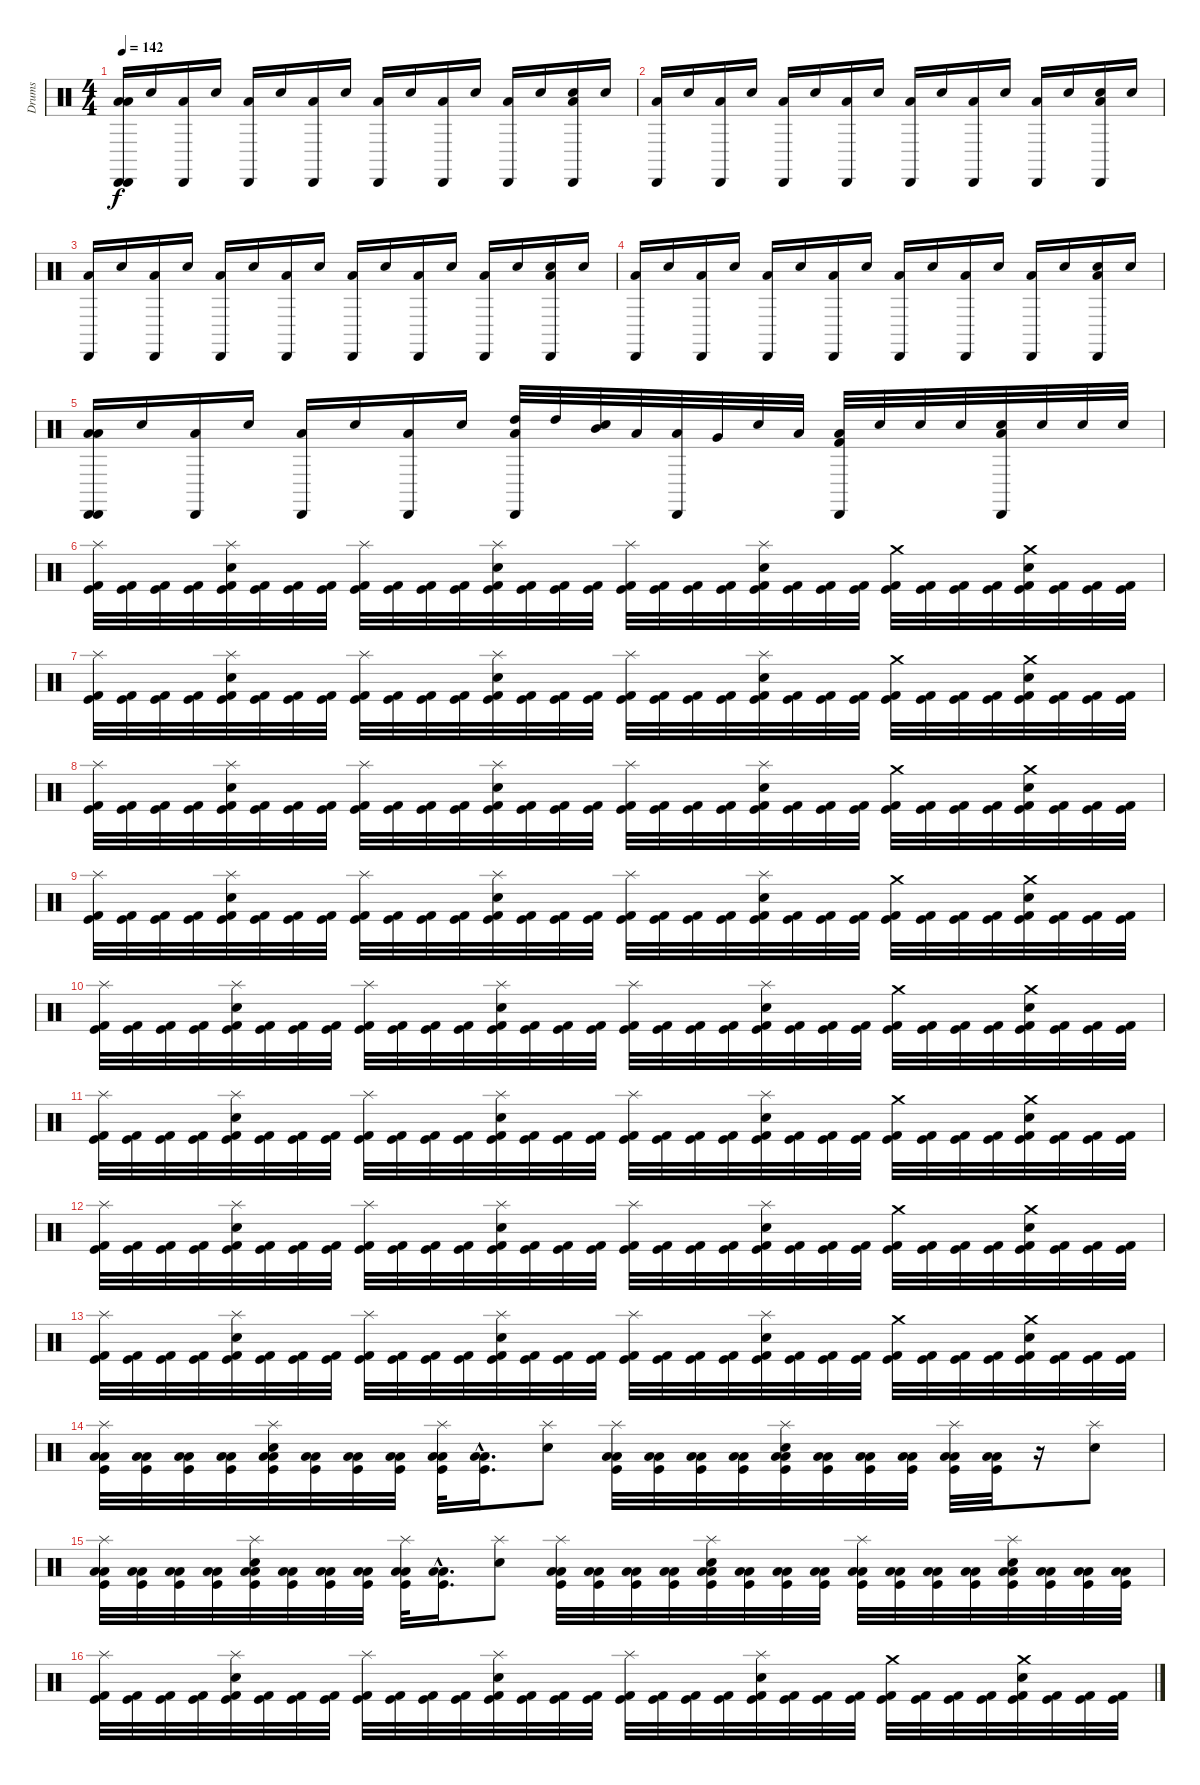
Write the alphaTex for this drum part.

\track ("Drums" "Drums") {instrument percussion}
\staff {score}
\articulation defaults
\ts (4 4)
\tempo 142
\clef neutral
\ks c
("Low Tom (hit)" "Cabasa (hit)" "Low Tom (hit)" "Cabasa (hit)").16{dy f} "Electric Snare (hit)".16 ("Low Tom (hit)" "Cabasa (hit)").16 "Electric Snare (hit)".16 ("Low Tom (hit)" "Cabasa (hit)").16 "Electric Snare (hit)".16 ("Low Tom (hit)" "Cabasa (hit)").16 "Electric Snare (hit)".16 ("Low Tom (hit)" "Cabasa (hit)").16 "Electric Snare (hit)".16 ("Low Tom (hit)" "Cabasa (hit)").16 "Electric Snare (hit)".16 ("Low Tom (hit)" "Cabasa (hit)").16 "Electric Snare (hit)".16 ("Low Tom (hit)" "Electric Snare (hit)" "Cabasa (hit)").16 "Electric Snare (hit)".16 |
("Low Tom (hit)" "Cabasa (hit)").16 "Electric Snare (hit)".16 ("Low Tom (hit)" "Cabasa (hit)").16 "Electric Snare (hit)".16 ("Low Tom (hit)" "Cabasa (hit)").16 "Electric Snare (hit)".16 ("Low Tom (hit)" "Cabasa (hit)").16 "Electric Snare (hit)".16 ("Low Tom (hit)" "Cabasa (hit)").16 "Electric Snare (hit)".16 ("Low Tom (hit)" "Cabasa (hit)").16 "Electric Snare (hit)".16 ("Low Tom (hit)" "Cabasa (hit)").16 "Electric Snare (hit)".16 ("Low Tom (hit)" "Electric Snare (hit)" "Cabasa (hit)").16 "Electric Snare (hit)".16 |
("Low Tom (hit)" "Cabasa (hit)").16 "Electric Snare (hit)".16 ("Low Tom (hit)" "Cabasa (hit)").16 "Electric Snare (hit)".16 ("Low Tom (hit)" "Cabasa (hit)").16 "Electric Snare (hit)".16 ("Low Tom (hit)" "Cabasa (hit)").16 "Electric Snare (hit)".16 ("Low Tom (hit)" "Cabasa (hit)").16 "Electric Snare (hit)".16 ("Low Tom (hit)" "Cabasa (hit)").16 "Electric Snare (hit)".16 ("Low Tom (hit)" "Cabasa (hit)").16 "Electric Snare (hit)".16 ("Low Tom (hit)" "Electric Snare (hit)" "Cabasa (hit)").16 "Electric Snare (hit)".16 |
("Low Tom (hit)" "Cabasa (hit)").16 "Electric Snare (hit)".16 ("Low Tom (hit)" "Cabasa (hit)").16 "Electric Snare (hit)".16 ("Low Tom (hit)" "Cabasa (hit)").16 "Electric Snare (hit)".16 ("Low Tom (hit)" "Cabasa (hit)").16 "Electric Snare (hit)".16 ("Low Tom (hit)" "Cabasa (hit)").16 "Electric Snare (hit)".16 ("Low Tom (hit)" "Cabasa (hit)").16 "Electric Snare (hit)".16 ("Low Tom (hit)" "Cabasa (hit)").16 "Electric Snare (hit)".16 ("Low Tom (hit)" "Electric Snare (hit)" "Cabasa (hit)").16 "Electric Snare (hit)".16 |
("Low Tom (hit)" "Cabasa (hit)" "Low Tom (hit)" "Cabasa (hit)").16 "Electric Snare (hit)".16 ("Low Tom (hit)" "Cabasa (hit)").16 "Electric Snare (hit)".16 ("Low Tom (hit)" "Cabasa (hit)").16 "Electric Snare (hit)".16 ("Low Tom (hit)" "Cabasa (hit)").16 "Electric Snare (hit)".16 ("High Tom (hit)" "Low Tom (hit)" "Cabasa (hit)").32 "High Tom (hit)".32 ("Mid Tom (hit)" "Electric Snare (hit)").32 "Low Tom (hit)".32 ("Low Tom (hit)" "Cabasa (hit)").32 "Very Low Tom (hit)".32 "Electric Snare (hit)".32 "Low Floor Tom (hit)".32 ("Kick (hit) 2" "Low Tom (hit)" "Cabasa (hit)").32 "Snare (hit) 2".32 "Electric Snare (hit)".32 "Snare (hit) 2".32 ("Low Tom (hit)" "Electric Snare (hit)" "Cabasa (hit)").32 "Electric Snare (hit)".32 "Electric Snare (hit)".32 "Electric Snare (hit)".32 |
("Kick (hit)" "Splash (hit)" "Kick (hit) 2").32 ("Kick (hit)" "Kick (hit) 2").32 ("Kick (hit)" "Kick (hit) 2").32 ("Kick (hit)" "Kick (hit) 2").32 ("Electric Snare (hit)" "Kick (hit)" "Splash (hit)" "Kick (hit) 2").32 ("Kick (hit)" "Kick (hit) 2").32 ("Kick (hit)" "Kick (hit) 2").32 ("Kick (hit)" "Kick (hit) 2").32 ("Kick (hit)" "Splash (hit)" "Kick (hit) 2").32 ("Kick (hit)" "Kick (hit) 2").32 ("Kick (hit)" "Kick (hit) 2").32 ("Kick (hit)" "Kick (hit) 2").32 ("Electric Snare (hit)" "Kick (hit)" "Splash (hit)" "Kick (hit) 2").32 ("Kick (hit)" "Kick (hit) 2").32 ("Kick (hit)" "Kick (hit) 2").32 ("Kick (hit)" "Kick (hit) 2").32 ("Kick (hit)" "Splash (hit)" "Kick (hit) 2").32 ("Kick (hit)" "Kick (hit) 2").32 ("Kick (hit)" "Kick (hit) 2").32 ("Kick (hit)" "Kick (hit) 2").32 ("Electric Snare (hit)" "Kick (hit)" "Splash (hit)" "Kick (hit) 2").32 ("Kick (hit)" "Kick (hit) 2").32 ("Kick (hit)" "Kick (hit) 2").32 ("Kick (hit)" "Kick (hit) 2").32 ("Kick (hit)" "Crash medium (hit)" "Kick (hit) 2").32 ("Kick (hit)" "Kick (hit) 2").32 ("Kick (hit)" "Kick (hit) 2").32 ("Kick (hit)" "Kick (hit) 2").32 ("Electric Snare (hit)" "Kick (hit)" "Crash medium (hit)" "Kick (hit) 2").32 ("Kick (hit)" "Kick (hit) 2").32 ("Kick (hit)" "Kick (hit) 2").32 ("Kick (hit)" "Kick (hit) 2").32 |
("Kick (hit)" "Splash (hit)" "Kick (hit) 2").32 ("Kick (hit)" "Kick (hit) 2").32 ("Kick (hit)" "Kick (hit) 2").32 ("Kick (hit)" "Kick (hit) 2").32 ("Electric Snare (hit)" "Kick (hit)" "Splash (hit)" "Kick (hit) 2").32 ("Kick (hit)" "Kick (hit) 2").32 ("Kick (hit)" "Kick (hit) 2").32 ("Kick (hit)" "Kick (hit) 2").32 ("Kick (hit)" "Splash (hit)" "Kick (hit) 2").32 ("Kick (hit)" "Kick (hit) 2").32 ("Kick (hit)" "Kick (hit) 2").32 ("Kick (hit)" "Kick (hit) 2").32 ("Electric Snare (hit)" "Kick (hit)" "Splash (hit)" "Kick (hit) 2").32 ("Kick (hit)" "Kick (hit) 2").32 ("Kick (hit)" "Kick (hit) 2").32 ("Kick (hit)" "Kick (hit) 2").32 ("Kick (hit)" "Splash (hit)" "Kick (hit) 2").32 ("Kick (hit)" "Kick (hit) 2").32 ("Kick (hit)" "Kick (hit) 2").32 ("Kick (hit)" "Kick (hit) 2").32 ("Electric Snare (hit)" "Kick (hit)" "Splash (hit)" "Kick (hit) 2").32 ("Kick (hit)" "Kick (hit) 2").32 ("Kick (hit)" "Kick (hit) 2").32 ("Kick (hit)" "Kick (hit) 2").32 ("Kick (hit)" "Crash medium (hit)" "Kick (hit) 2").32 ("Kick (hit)" "Kick (hit) 2").32 ("Kick (hit)" "Kick (hit) 2").32 ("Kick (hit)" "Kick (hit) 2").32 ("Electric Snare (hit)" "Kick (hit)" "Crash medium (hit)" "Kick (hit) 2").32 ("Kick (hit)" "Kick (hit) 2").32 ("Kick (hit)" "Kick (hit) 2").32 ("Kick (hit)" "Kick (hit) 2").32 |
("Kick (hit)" "Splash (hit)" "Kick (hit) 2").32 ("Kick (hit)" "Kick (hit) 2").32 ("Kick (hit)" "Kick (hit) 2").32 ("Kick (hit)" "Kick (hit) 2").32 ("Electric Snare (hit)" "Kick (hit)" "Splash (hit)" "Kick (hit) 2").32 ("Kick (hit)" "Kick (hit) 2").32 ("Kick (hit)" "Kick (hit) 2").32 ("Kick (hit)" "Kick (hit) 2").32 ("Kick (hit)" "Splash (hit)" "Kick (hit) 2").32 ("Kick (hit)" "Kick (hit) 2").32 ("Kick (hit)" "Kick (hit) 2").32 ("Kick (hit)" "Kick (hit) 2").32 ("Electric Snare (hit)" "Kick (hit)" "Splash (hit)" "Kick (hit) 2").32 ("Kick (hit)" "Kick (hit) 2").32 ("Kick (hit)" "Kick (hit) 2").32 ("Kick (hit)" "Kick (hit) 2").32 ("Kick (hit)" "Splash (hit)" "Kick (hit) 2").32 ("Kick (hit)" "Kick (hit) 2").32 ("Kick (hit)" "Kick (hit) 2").32 ("Kick (hit)" "Kick (hit) 2").32 ("Electric Snare (hit)" "Kick (hit)" "Splash (hit)" "Kick (hit) 2").32 ("Kick (hit)" "Kick (hit) 2").32 ("Kick (hit)" "Kick (hit) 2").32 ("Kick (hit)" "Kick (hit) 2").32 ("Kick (hit)" "Crash medium (hit)" "Kick (hit) 2").32 ("Kick (hit)" "Kick (hit) 2").32 ("Kick (hit)" "Kick (hit) 2").32 ("Kick (hit)" "Kick (hit) 2").32 ("Electric Snare (hit)" "Kick (hit)" "Crash medium (hit)" "Kick (hit) 2").32 ("Kick (hit)" "Kick (hit) 2").32 ("Kick (hit)" "Kick (hit) 2").32 ("Kick (hit)" "Kick (hit) 2").32 |
("Kick (hit)" "Splash (hit)" "Kick (hit) 2").32 ("Kick (hit)" "Kick (hit) 2").32 ("Kick (hit)" "Kick (hit) 2").32 ("Kick (hit)" "Kick (hit) 2").32 ("Electric Snare (hit)" "Kick (hit)" "Splash (hit)" "Kick (hit) 2").32 ("Kick (hit)" "Kick (hit) 2").32 ("Kick (hit)" "Kick (hit) 2").32 ("Kick (hit)" "Kick (hit) 2").32 ("Kick (hit)" "Splash (hit)" "Kick (hit) 2").32 ("Kick (hit)" "Kick (hit) 2").32 ("Kick (hit)" "Kick (hit) 2").32 ("Kick (hit)" "Kick (hit) 2").32 ("Electric Snare (hit)" "Kick (hit)" "Splash (hit)" "Kick (hit) 2").32 ("Kick (hit)" "Kick (hit) 2").32 ("Kick (hit)" "Kick (hit) 2").32 ("Kick (hit)" "Kick (hit) 2").32 ("Kick (hit)" "Splash (hit)" "Kick (hit) 2").32 ("Kick (hit)" "Kick (hit) 2").32 ("Kick (hit)" "Kick (hit) 2").32 ("Kick (hit)" "Kick (hit) 2").32 ("Electric Snare (hit)" "Kick (hit)" "Splash (hit)" "Kick (hit) 2").32 ("Kick (hit)" "Kick (hit) 2").32 ("Kick (hit)" "Kick (hit) 2").32 ("Kick (hit)" "Kick (hit) 2").32 ("Kick (hit)" "Crash medium (hit)" "Kick (hit) 2").32 ("Kick (hit)" "Kick (hit) 2").32 ("Kick (hit)" "Kick (hit) 2").32 ("Kick (hit)" "Kick (hit) 2").32 ("Electric Snare (hit)" "Kick (hit)" "Crash medium (hit)" "Kick (hit) 2").32 ("Kick (hit)" "Kick (hit) 2").32 ("Kick (hit)" "Kick (hit) 2").32 ("Kick (hit)" "Kick (hit) 2").32 |
("Kick (hit)" "Splash (hit)" "Kick (hit) 2").32 ("Kick (hit)" "Kick (hit) 2").32 ("Kick (hit)" "Kick (hit) 2").32 ("Kick (hit)" "Kick (hit) 2").32 ("Electric Snare (hit)" "Kick (hit)" "Splash (hit)" "Kick (hit) 2").32 ("Kick (hit)" "Kick (hit) 2").32 ("Kick (hit)" "Kick (hit) 2").32 ("Kick (hit)" "Kick (hit) 2").32 ("Kick (hit)" "Splash (hit)" "Kick (hit) 2").32 ("Kick (hit)" "Kick (hit) 2").32 ("Kick (hit)" "Kick (hit) 2").32 ("Kick (hit)" "Kick (hit) 2").32 ("Electric Snare (hit)" "Kick (hit)" "Splash (hit)" "Kick (hit) 2").32 ("Kick (hit)" "Kick (hit) 2").32 ("Kick (hit)" "Kick (hit) 2").32 ("Kick (hit)" "Kick (hit) 2").32 ("Kick (hit)" "Splash (hit)" "Kick (hit) 2").32 ("Kick (hit)" "Kick (hit) 2").32 ("Kick (hit)" "Kick (hit) 2").32 ("Kick (hit)" "Kick (hit) 2").32 ("Electric Snare (hit)" "Kick (hit)" "Splash (hit)" "Kick (hit) 2").32 ("Kick (hit)" "Kick (hit) 2").32 ("Kick (hit)" "Kick (hit) 2").32 ("Kick (hit)" "Kick (hit) 2").32 ("Kick (hit)" "Crash medium (hit)" "Kick (hit) 2").32 ("Kick (hit)" "Kick (hit) 2").32 ("Kick (hit)" "Kick (hit) 2").32 ("Kick (hit)" "Kick (hit) 2").32 ("Electric Snare (hit)" "Kick (hit)" "Crash medium (hit)" "Kick (hit) 2").32 ("Kick (hit)" "Kick (hit) 2").32 ("Kick (hit)" "Kick (hit) 2").32 ("Kick (hit)" "Kick (hit) 2").32 |
("Kick (hit)" "Splash (hit)" "Kick (hit) 2").32 ("Kick (hit)" "Kick (hit) 2").32 ("Kick (hit)" "Kick (hit) 2").32 ("Kick (hit)" "Kick (hit) 2").32 ("Electric Snare (hit)" "Kick (hit)" "Splash (hit)" "Kick (hit) 2").32 ("Kick (hit)" "Kick (hit) 2").32 ("Kick (hit)" "Kick (hit) 2").32 ("Kick (hit)" "Kick (hit) 2").32 ("Kick (hit)" "Splash (hit)" "Kick (hit) 2").32 ("Kick (hit)" "Kick (hit) 2").32 ("Kick (hit)" "Kick (hit) 2").32 ("Kick (hit)" "Kick (hit) 2").32 ("Electric Snare (hit)" "Kick (hit)" "Splash (hit)" "Kick (hit) 2").32 ("Kick (hit)" "Kick (hit) 2").32 ("Kick (hit)" "Kick (hit) 2").32 ("Kick (hit)" "Kick (hit) 2").32 ("Kick (hit)" "Splash (hit)" "Kick (hit) 2").32 ("Kick (hit)" "Kick (hit) 2").32 ("Kick (hit)" "Kick (hit) 2").32 ("Kick (hit)" "Kick (hit) 2").32 ("Electric Snare (hit)" "Kick (hit)" "Splash (hit)" "Kick (hit) 2").32 ("Kick (hit)" "Kick (hit) 2").32 ("Kick (hit)" "Kick (hit) 2").32 ("Kick (hit)" "Kick (hit) 2").32 ("Kick (hit)" "Crash medium (hit)" "Kick (hit) 2").32 ("Kick (hit)" "Kick (hit) 2").32 ("Kick (hit)" "Kick (hit) 2").32 ("Kick (hit)" "Kick (hit) 2").32 ("Electric Snare (hit)" "Kick (hit)" "Crash medium (hit)" "Kick (hit) 2").32 ("Kick (hit)" "Kick (hit) 2").32 ("Kick (hit)" "Kick (hit) 2").32 ("Kick (hit)" "Kick (hit) 2").32 |
("Kick (hit)" "Splash (hit)" "Kick (hit) 2").32 ("Kick (hit)" "Kick (hit) 2").32 ("Kick (hit)" "Kick (hit) 2").32 ("Kick (hit)" "Kick (hit) 2").32 ("Electric Snare (hit)" "Kick (hit)" "Splash (hit)" "Kick (hit) 2").32 ("Kick (hit)" "Kick (hit) 2").32 ("Kick (hit)" "Kick (hit) 2").32 ("Kick (hit)" "Kick (hit) 2").32 ("Kick (hit)" "Splash (hit)" "Kick (hit) 2").32 ("Kick (hit)" "Kick (hit) 2").32 ("Kick (hit)" "Kick (hit) 2").32 ("Kick (hit)" "Kick (hit) 2").32 ("Electric Snare (hit)" "Kick (hit)" "Splash (hit)" "Kick (hit) 2").32 ("Kick (hit)" "Kick (hit) 2").32 ("Kick (hit)" "Kick (hit) 2").32 ("Kick (hit)" "Kick (hit) 2").32 ("Kick (hit)" "Splash (hit)" "Kick (hit) 2").32 ("Kick (hit)" "Kick (hit) 2").32 ("Kick (hit)" "Kick (hit) 2").32 ("Kick (hit)" "Kick (hit) 2").32 ("Electric Snare (hit)" "Kick (hit)" "Splash (hit)" "Kick (hit) 2").32 ("Kick (hit)" "Kick (hit) 2").32 ("Kick (hit)" "Kick (hit) 2").32 ("Kick (hit)" "Kick (hit) 2").32 ("Kick (hit)" "Crash medium (hit)" "Kick (hit) 2").32 ("Kick (hit)" "Kick (hit) 2").32 ("Kick (hit)" "Kick (hit) 2").32 ("Kick (hit)" "Kick (hit) 2").32 ("Electric Snare (hit)" "Kick (hit)" "Crash medium (hit)" "Kick (hit) 2").32 ("Kick (hit)" "Kick (hit) 2").32 ("Kick (hit)" "Kick (hit) 2").32 ("Kick (hit)" "Kick (hit) 2").32 |
("Kick (hit)" "Splash (hit)" "Kick (hit) 2").32 ("Kick (hit)" "Kick (hit) 2").32 ("Kick (hit)" "Kick (hit) 2").32 ("Kick (hit)" "Kick (hit) 2").32 ("Electric Snare (hit)" "Kick (hit)" "Splash (hit)" "Kick (hit) 2").32 ("Kick (hit)" "Kick (hit) 2").32 ("Kick (hit)" "Kick (hit) 2").32 ("Kick (hit)" "Kick (hit) 2").32 ("Kick (hit)" "Splash (hit)" "Kick (hit) 2").32 ("Kick (hit)" "Kick (hit) 2").32 ("Kick (hit)" "Kick (hit) 2").32 ("Kick (hit)" "Kick (hit) 2").32 ("Electric Snare (hit)" "Kick (hit)" "Splash (hit)" "Kick (hit) 2").32 ("Kick (hit)" "Kick (hit) 2").32 ("Kick (hit)" "Kick (hit) 2").32 ("Kick (hit)" "Kick (hit) 2").32 ("Kick (hit)" "Splash (hit)" "Kick (hit) 2").32 ("Kick (hit)" "Kick (hit) 2").32 ("Kick (hit)" "Kick (hit) 2").32 ("Kick (hit)" "Kick (hit) 2").32 ("Electric Snare (hit)" "Kick (hit)" "Splash (hit)" "Kick (hit) 2").32 ("Kick (hit)" "Kick (hit) 2").32 ("Kick (hit)" "Kick (hit) 2").32 ("Kick (hit)" "Kick (hit) 2").32 ("Kick (hit)" "Crash medium (hit)" "Kick (hit) 2").32 ("Kick (hit)" "Kick (hit) 2").32 ("Kick (hit)" "Kick (hit) 2").32 ("Kick (hit)" "Kick (hit) 2").32 ("Electric Snare (hit)" "Kick (hit)" "Crash medium (hit)" "Kick (hit) 2").32 ("Kick (hit)" "Kick (hit) 2").32 ("Kick (hit)" "Kick (hit) 2").32 ("Kick (hit)" "Kick (hit) 2").32 |
("Splash (hit)" "Kick (hit)" "Low Floor Tom (hit)" "Low Tom (hit)").32 ("Kick (hit)" "Low Floor Tom (hit)" "Low Tom (hit)").32 ("Kick (hit)" "Low Floor Tom (hit)" "Low Tom (hit)").32 ("Kick (hit)" "Low Floor Tom (hit)" "Low Tom (hit)").32 ("Snare (hit) 2" "Splash (hit)" "Kick (hit)" "Low Floor Tom (hit)" "Low Tom (hit)").32 ("Kick (hit)" "Low Floor Tom (hit)" "Low Tom (hit)").32 ("Kick (hit)" "Low Floor Tom (hit)" "Low Tom (hit)").32 ("Kick (hit)" "Low Floor Tom (hit)" "Low Tom (hit)").32 ("Splash (hit)" "Low Floor Tom (hit)" "Kick (hit)" "Low Tom (hit)").32 ("Kick (hit)" "Low Floor Tom (hit)"{hac} "Low Tom (hit)").16{d} ("Electric Snare (hit)" "Splash (hit)").8 ("Splash (hit)" "Low Tom (hit)" "Low Floor Tom (hit)" "Kick (hit)").32 ("Kick (hit)" "Low Tom (hit)" "Low Floor Tom (hit)").32 ("Kick (hit)" "Low Tom (hit)" "Low Floor Tom (hit)").32 ("Kick (hit)" "Low Tom (hit)" "Low Floor Tom (hit)").32 ("Snare (hit) 2" "Splash (hit)" "Kick (hit)" "Low Tom (hit)" "Low Floor Tom (hit)").32 ("Kick (hit)" "Low Tom (hit)" "Low Floor Tom (hit)").32 ("Kick (hit)" "Low Tom (hit)" "Low Floor Tom (hit)").32 ("Kick (hit)" "Low Tom (hit)" "Low Floor Tom (hit)").32 ("Splash (hit)" "Kick (hit)" "Low Tom (hit)" "Low Floor Tom (hit)").32 ("Kick (hit)" "Low Tom (hit)" "Low Floor Tom (hit)").32 r.16 ("Electric Snare (hit)" "Splash (hit)").8 |
("Splash (hit)" "Kick (hit)" "Low Floor Tom (hit)" "Low Tom (hit)").32 ("Kick (hit)" "Low Floor Tom (hit)" "Low Tom (hit)").32 ("Kick (hit)" "Low Floor Tom (hit)" "Low Tom (hit)").32 ("Kick (hit)" "Low Floor Tom (hit)" "Low Tom (hit)").32 ("Snare (hit) 2" "Splash (hit)" "Kick (hit)" "Low Floor Tom (hit)" "Low Tom (hit)").32 ("Kick (hit)" "Low Floor Tom (hit)" "Low Tom (hit)").32 ("Kick (hit)" "Low Floor Tom (hit)" "Low Tom (hit)").32 ("Kick (hit)" "Low Floor Tom (hit)" "Low Tom (hit)").32 ("Splash (hit)" "Low Floor Tom (hit)" "Kick (hit)" "Low Tom (hit)").32 ("Kick (hit)" "Low Floor Tom (hit)"{hac} "Low Tom (hit)").16{d} ("Electric Snare (hit)" "Splash (hit)").8 ("Splash (hit)" "Low Tom (hit)" "Low Floor Tom (hit)" "Kick (hit)").32 ("Kick (hit)" "Low Tom (hit)" "Low Floor Tom (hit)").32 ("Kick (hit)" "Low Tom (hit)" "Low Floor Tom (hit)").32 ("Kick (hit)" "Low Tom (hit)" "Low Floor Tom (hit)").32 ("Snare (hit) 2" "Splash (hit)" "Kick (hit)" "Low Tom (hit)" "Low Floor Tom (hit)").32 ("Kick (hit)" "Low Tom (hit)" "Low Floor Tom (hit)").32 ("Kick (hit)" "Low Tom (hit)" "Low Floor Tom (hit)").32 ("Kick (hit)" "Low Tom (hit)" "Low Floor Tom (hit)").32 ("Splash (hit)" "Kick (hit)" "Low Tom (hit)" "Low Floor Tom (hit)").32 ("Kick (hit)" "Low Tom (hit)" "Low Floor Tom (hit)").32 ("Kick (hit)" "Low Floor Tom (hit)" "Low Tom (hit)").32 ("Kick (hit)" "Low Floor Tom (hit)" "Low Tom (hit)").32 ("Low Floor Tom (hit)" "Kick (hit)" "Low Tom (hit)" "Electric Snare (hit)" "Splash (hit)").32 ("Kick (hit)" "Low Floor Tom (hit)" "Low Tom (hit)").32 ("Kick (hit)" "Low Floor Tom (hit)" "Low Tom (hit)").32 ("Kick (hit)" "Low Floor Tom (hit)" "Low Tom (hit)").32 |
("Kick (hit)" "Splash (hit)" "Kick (hit) 2").32 ("Kick (hit)" "Kick (hit) 2").32 ("Kick (hit)" "Kick (hit) 2").32 ("Kick (hit)" "Kick (hit) 2").32 ("Electric Snare (hit)" "Kick (hit)" "Splash (hit)" "Kick (hit) 2").32 ("Kick (hit)" "Kick (hit) 2").32 ("Kick (hit)" "Kick (hit) 2").32 ("Kick (hit)" "Kick (hit) 2").32 ("Kick (hit)" "Splash (hit)" "Kick (hit) 2").32 ("Kick (hit)" "Kick (hit) 2").32 ("Kick (hit)" "Kick (hit) 2").32 ("Kick (hit)" "Kick (hit) 2").32 ("Electric Snare (hit)" "Kick (hit)" "Splash (hit)" "Kick (hit) 2").32 ("Kick (hit)" "Kick (hit) 2").32 ("Kick (hit)" "Kick (hit) 2").32 ("Kick (hit)" "Kick (hit) 2").32 ("Kick (hit)" "Splash (hit)" "Kick (hit) 2").32 ("Kick (hit)" "Kick (hit) 2").32 ("Kick (hit)" "Kick (hit) 2").32 ("Kick (hit)" "Kick (hit) 2").32 ("Electric Snare (hit)" "Kick (hit)" "Splash (hit)" "Kick (hit) 2").32 ("Kick (hit)" "Kick (hit) 2").32 ("Kick (hit)" "Kick (hit) 2").32 ("Kick (hit)" "Kick (hit) 2").32 ("Kick (hit)" "Crash medium (hit)" "Kick (hit) 2").32 ("Kick (hit)" "Kick (hit) 2").32 ("Kick (hit)" "Kick (hit) 2").32 ("Kick (hit)" "Kick (hit) 2").32 ("Electric Snare (hit)" "Kick (hit)" "Crash medium (hit)" "Kick (hit) 2").32 ("Kick (hit)" "Kick (hit) 2").32 ("Kick (hit)" "Kick (hit) 2").32 ("Kick (hit)" "Kick (hit) 2").32
